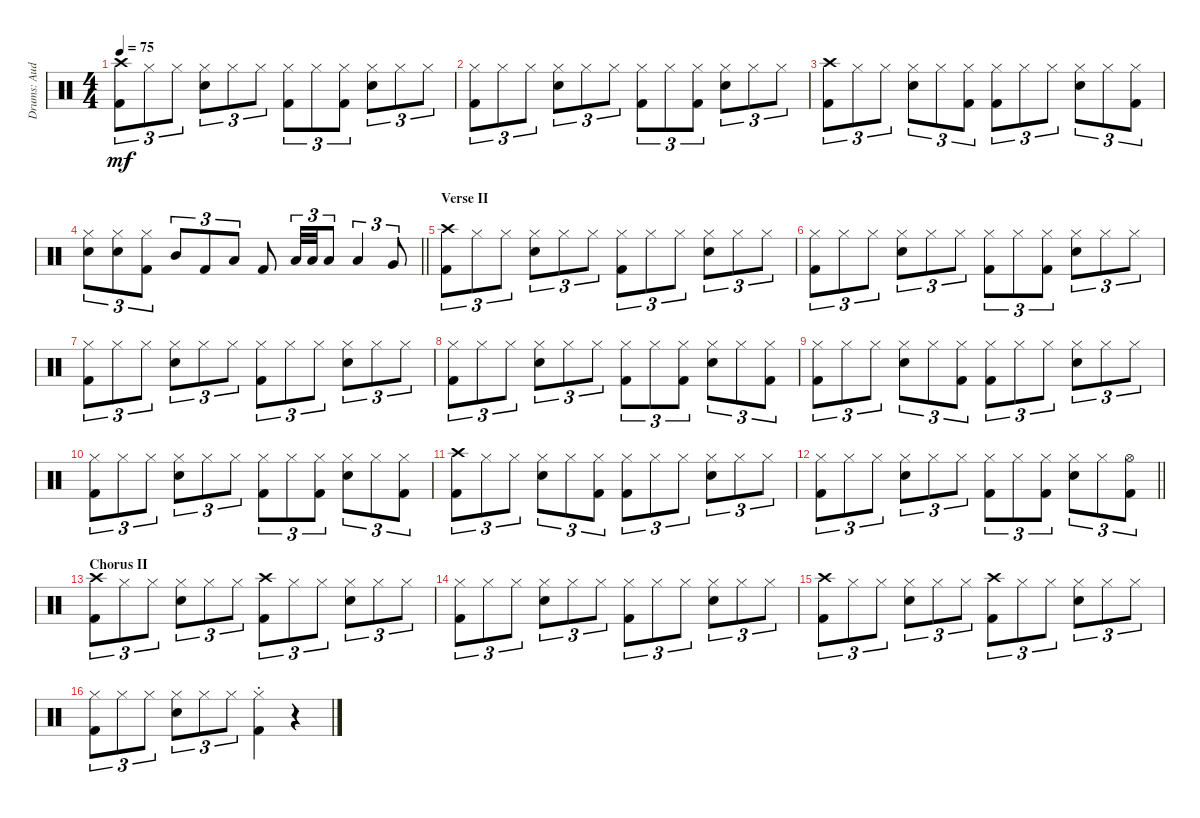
\track ("Drums: Audie" "Drums: Aud") {instrument percussion}
\staff {score}
\articulation defaults
\ts (4 4)
\tempo 75
\clef neutral
\ks c
("Crash high (hit)" "Kick (hit) 2").8{tu (3 2) dy mf} "Hi-Hat (closed)".8{tu (3 2)} "Hi-Hat (closed)".8{tu (3 2)} ("Hi-Hat (closed)" "Electric Snare (hit)").8{tu (3 2)} "Hi-Hat (closed)".8{tu (3 2)} "Hi-Hat (closed)".8{tu (3 2)} ("Hi-Hat (closed)" "Kick (hit) 2").8{tu (3 2)} "Hi-Hat (closed)".8{tu (3 2)} ("Hi-Hat (closed)" "Kick (hit) 2").8{tu (3 2)} ("Hi-Hat (closed)" "Electric Snare (hit)").8{tu (3 2)} "Hi-Hat (closed)".8{tu (3 2)} "Hi-Hat (closed)".8{tu (3 2)} |
("Hi-Hat (closed)" "Kick (hit) 2").8{tu (3 2)} "Hi-Hat (closed)".8{tu (3 2)} "Hi-Hat (closed)".8{tu (3 2)} ("Hi-Hat (closed)" "Electric Snare (hit)").8{tu (3 2)} "Hi-Hat (closed)".8{tu (3 2)} "Hi-Hat (closed)".8{tu (3 2)} ("Hi-Hat (closed)" "Kick (hit) 2").8{tu (3 2)} "Hi-Hat (closed)".8{tu (3 2)} ("Hi-Hat (closed)" "Kick (hit) 2").8{tu (3 2)} ("Hi-Hat (closed)" "Electric Snare (hit)").8{tu (3 2)} "Hi-Hat (closed)".8{tu (3 2)} "Hi-Hat (closed)".8{tu (3 2)} |
("Crash high (hit)" "Kick (hit) 2").8{tu (3 2)} "Hi-Hat (closed)".8{tu (3 2)} "Hi-Hat (closed)".8{tu (3 2)} ("Hi-Hat (closed)" "Electric Snare (hit)").8{tu (3 2)} "Hi-Hat (closed)".8{tu (3 2)} ("Hi-Hat (closed)" "Kick (hit) 2").8{tu (3 2)} ("Hi-Hat (closed)" "Kick (hit) 2").8{tu (3 2)} "Hi-Hat (closed)".8{tu (3 2)} "Hi-Hat (closed)".8{tu (3 2)} ("Hi-Hat (closed)" "Electric Snare (hit)").8{tu (3 2)} "Hi-Hat (closed)".8{tu (3 2)} ("Hi-Hat (closed)" "Kick (hit) 2").8{tu (3 2)} |
\barLineRight lightlight
("Hi-Hat (closed)" "Electric Snare (hit)").8{tu (3 2)} ("Hi-Hat (closed)" "Electric Snare (hit)").8{tu (3 2)} ("Hi-Hat (closed)" "Kick (hit) 2").8{tu (3 2)} "Mid Tom (hit)".8{tu (3 2)} "Kick (hit) 2".8{tu (3 2)} "Low Tom (hit)".8{tu (3 2)} "Kick (hit) 2".8 "Low Tom (hit)".32{tu (3 2)} "Low Tom (hit)".32{tu (3 2)} "Low Tom (hit)".8{tu (3 2)} "Low Tom (hit)".4{tu (3 2)} "Very Low Tom (hit)".8{tu (3 2)} |
\section ("" "Verse II")
("Crash high (hit)" "Kick (hit) 2").8{tu (3 2)} "Hi-Hat (closed)".8{tu (3 2)} "Hi-Hat (closed)".8{tu (3 2)} ("Hi-Hat (closed)" "Electric Snare (hit)").8{tu (3 2)} "Hi-Hat (closed)".8{tu (3 2)} "Hi-Hat (closed)".8{tu (3 2)} ("Hi-Hat (closed)" "Kick (hit) 2").8{tu (3 2)} "Hi-Hat (closed)".8{tu (3 2)} "Hi-Hat (closed)".8{tu (3 2)} ("Hi-Hat (closed)" "Electric Snare (hit)").8{tu (3 2)} "Hi-Hat (closed)".8{tu (3 2)} "Hi-Hat (closed)".8{tu (3 2)} |
("Hi-Hat (closed)" "Kick (hit) 2").8{tu (3 2)} "Hi-Hat (closed)".8{tu (3 2)} "Hi-Hat (closed)".8{tu (3 2)} ("Hi-Hat (closed)" "Electric Snare (hit)").8{tu (3 2)} "Hi-Hat (closed)".8{tu (3 2)} "Hi-Hat (closed)".8{tu (3 2)} ("Hi-Hat (closed)" "Kick (hit) 2").8{tu (3 2)} "Hi-Hat (closed)".8{tu (3 2)} ("Hi-Hat (closed)" "Kick (hit) 2").8{tu (3 2)} ("Hi-Hat (closed)" "Electric Snare (hit)").8{tu (3 2)} "Hi-Hat (closed)".8{tu (3 2)} "Hi-Hat (closed)".8{tu (3 2)} |
("Hi-Hat (closed)" "Kick (hit) 2").8{tu (3 2)} "Hi-Hat (closed)".8{tu (3 2)} "Hi-Hat (closed)".8{tu (3 2)} ("Hi-Hat (closed)" "Electric Snare (hit)").8{tu (3 2)} "Hi-Hat (closed)".8{tu (3 2)} "Hi-Hat (closed)".8{tu (3 2)} ("Hi-Hat (closed)" "Kick (hit) 2").8{tu (3 2)} "Hi-Hat (closed)".8{tu (3 2)} "Hi-Hat (closed)".8{tu (3 2)} ("Hi-Hat (closed)" "Electric Snare (hit)").8{tu (3 2)} "Hi-Hat (closed)".8{tu (3 2)} "Hi-Hat (closed)".8{tu (3 2)} |
("Hi-Hat (closed)" "Kick (hit) 2").8{tu (3 2)} "Hi-Hat (closed)".8{tu (3 2)} "Hi-Hat (closed)".8{tu (3 2)} ("Hi-Hat (closed)" "Electric Snare (hit)").8{tu (3 2)} "Hi-Hat (closed)".8{tu (3 2)} "Hi-Hat (closed)".8{tu (3 2)} ("Hi-Hat (closed)" "Kick (hit) 2").8{tu (3 2)} "Hi-Hat (closed)".8{tu (3 2)} ("Hi-Hat (closed)" "Kick (hit) 2").8{tu (3 2)} ("Hi-Hat (closed)" "Electric Snare (hit)").8{tu (3 2)} "Hi-Hat (closed)".8{tu (3 2)} ("Hi-Hat (closed)" "Kick (hit) 2").8{tu (3 2)} |
("Hi-Hat (closed)" "Kick (hit) 2").8{tu (3 2)} "Hi-Hat (closed)".8{tu (3 2)} "Hi-Hat (closed)".8{tu (3 2)} ("Hi-Hat (closed)" "Electric Snare (hit)").8{tu (3 2)} "Hi-Hat (closed)".8{tu (3 2)} ("Hi-Hat (closed)" "Kick (hit) 2").8{tu (3 2)} ("Hi-Hat (closed)" "Kick (hit) 2").8{tu (3 2)} "Hi-Hat (closed)".8{tu (3 2)} "Hi-Hat (closed)".8{tu (3 2)} ("Hi-Hat (closed)" "Electric Snare (hit)").8{tu (3 2)} "Hi-Hat (closed)".8{tu (3 2)} "Hi-Hat (closed)".8{tu (3 2)} |
("Hi-Hat (closed)" "Kick (hit) 2").8{tu (3 2)} "Hi-Hat (closed)".8{tu (3 2)} "Hi-Hat (closed)".8{tu (3 2)} ("Hi-Hat (closed)" "Electric Snare (hit)").8{tu (3 2)} "Hi-Hat (closed)".8{tu (3 2)} "Hi-Hat (closed)".8{tu (3 2)} ("Hi-Hat (closed)" "Kick (hit) 2").8{tu (3 2)} "Hi-Hat (closed)".8{tu (3 2)} ("Hi-Hat (closed)" "Kick (hit) 2").8{tu (3 2)} ("Hi-Hat (closed)" "Electric Snare (hit)").8{tu (3 2)} "Hi-Hat (closed)".8{tu (3 2)} ("Hi-Hat (closed)" "Kick (hit) 2").8{tu (3 2)} |
("Crash high (hit)" "Kick (hit) 2").8{tu (3 2)} "Hi-Hat (closed)".8{tu (3 2)} "Hi-Hat (closed)".8{tu (3 2)} ("Hi-Hat (closed)" "Electric Snare (hit)").8{tu (3 2)} "Hi-Hat (closed)".8{tu (3 2)} ("Hi-Hat (closed)" "Kick (hit) 2").8{tu (3 2)} ("Hi-Hat (closed)" "Kick (hit) 2").8{tu (3 2)} "Hi-Hat (closed)".8{tu (3 2)} "Hi-Hat (closed)".8{tu (3 2)} ("Hi-Hat (closed)" "Electric Snare (hit)").8{tu (3 2)} "Hi-Hat (closed)".8{tu (3 2)} "Hi-Hat (closed)".8{tu (3 2)} |
\barLineRight lightlight
("Hi-Hat (closed)" "Kick (hit) 2").8{tu (3 2)} "Hi-Hat (closed)".8{tu (3 2)} "Hi-Hat (closed)".8{tu (3 2)} ("Hi-Hat (closed)" "Electric Snare (hit)").8{tu (3 2)} "Hi-Hat (closed)".8{tu (3 2)} "Hi-Hat (closed)".8{tu (3 2)} ("Hi-Hat (closed)" "Kick (hit) 2").8{tu (3 2)} "Hi-Hat (closed)".8{tu (3 2)} ("Hi-Hat (closed)" "Kick (hit) 2").8{tu (3 2)} ("Hi-Hat (closed)" "Electric Snare (hit)").8{tu (3 2)} "Hi-Hat (closed)".8{tu (3 2)} ("Hi-Hat (open)" "Kick (hit) 2").8{tu (3 2)} |
\section ("" "Chorus II")
("Crash high (hit)" "Kick (hit) 2").8{tu (3 2)} "Hi-Hat (closed)".8{tu (3 2)} "Hi-Hat (closed)".8{tu (3 2)} ("Hi-Hat (closed)" "Electric Snare (hit)").8{tu (3 2)} "Hi-Hat (closed)".8{tu (3 2)} "Hi-Hat (closed)".8{tu (3 2)} ("Crash high (hit)" "Kick (hit) 2").8{tu (3 2)} "Hi-Hat (closed)".8{tu (3 2)} "Hi-Hat (closed)".8{tu (3 2)} ("Hi-Hat (closed)" "Electric Snare (hit)").8{tu (3 2)} "Hi-Hat (closed)".8{tu (3 2)} "Hi-Hat (closed)".8{tu (3 2)} |
("Hi-Hat (closed)" "Kick (hit) 2").8{tu (3 2)} "Hi-Hat (closed)".8{tu (3 2)} "Hi-Hat (closed)".8{tu (3 2)} ("Hi-Hat (closed)" "Electric Snare (hit)").8{tu (3 2)} "Hi-Hat (closed)".8{tu (3 2)} "Hi-Hat (closed)".8{tu (3 2)} ("Hi-Hat (closed)" "Kick (hit) 2").8{tu (3 2)} "Hi-Hat (closed)".8{tu (3 2)} "Hi-Hat (closed)".8{tu (3 2)} ("Hi-Hat (closed)" "Electric Snare (hit)").8{tu (3 2)} "Hi-Hat (closed)".8{tu (3 2)} "Hi-Hat (closed)".8{tu (3 2)} |
("Crash high (hit)" "Kick (hit) 2").8{tu (3 2)} "Hi-Hat (closed)".8{tu (3 2)} "Hi-Hat (closed)".8{tu (3 2)} ("Hi-Hat (closed)" "Electric Snare (hit)").8{tu (3 2)} "Hi-Hat (closed)".8{tu (3 2)} "Hi-Hat (closed)".8{tu (3 2)} ("Crash high (hit)" "Kick (hit) 2").8{tu (3 2)} "Hi-Hat (closed)".8{tu (3 2)} "Hi-Hat (closed)".8{tu (3 2)} ("Hi-Hat (closed)" "Electric Snare (hit)").8{tu (3 2)} "Hi-Hat (closed)".8{tu (3 2)} "Hi-Hat (closed)".8{tu (3 2)} |
("Hi-Hat (closed)" "Kick (hit) 2").8{tu (3 2)} "Hi-Hat (closed)".8{tu (3 2)} "Hi-Hat (closed)".8{tu (3 2)} ("Hi-Hat (closed)" "Electric Snare (hit)").8{tu (3 2)} "Hi-Hat (closed)".8{tu (3 2)} "Hi-Hat (closed)".8{tu (3 2)} ("Hi-Hat (closed)"{st} "Kick (hit) 2"{st}).4 r.4
